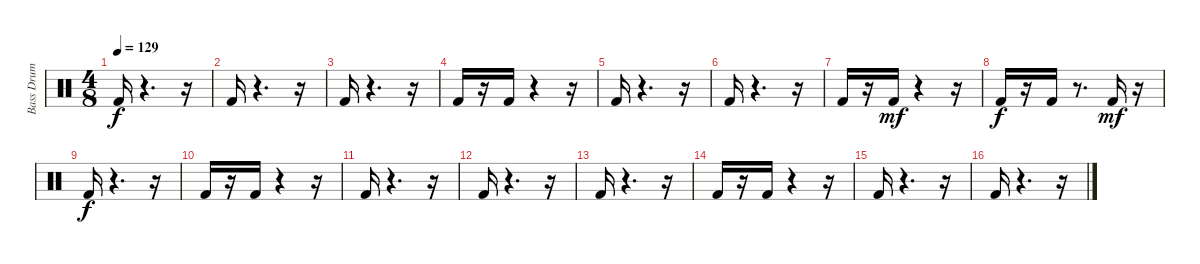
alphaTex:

\track ("Bass Drum" "Bass Drum") {instrument percussion}
\staff {score}
\articulation defaults
\ts (4 8)
\tempo 129
\clef neutral
\ks c "Kick (hit) 2".16{dy f}
r.4{d} r.16 |
"Kick (hit) 2".16 r.4{d} r.16 |
"Kick (hit) 2".16 r.4{d} r.16 |
"Kick (hit) 2".16 r.16 "Kick (hit) 2".16 r.4 r.16 |
"Kick (hit) 2".16 r.4{d} r.16 |
"Kick (hit) 2".16 r.4{d} r.16 |
"Kick (hit) 2".16 r.16 "Kick (hit) 2".16{dy mf} r.4 r.16 |
"Kick (hit) 2".16{dy f} r.16 "Kick (hit) 2".16 r.8{d} "Kick (hit) 2".16{dy mf} r.16 |
"Kick (hit) 2".16{dy f} r.4{d} r.16 |
"Kick (hit) 2".16 r.16 "Kick (hit) 2".16 r.4 r.16 |
"Kick (hit) 2".16 r.4{d} r.16 |
"Kick (hit) 2".16 r.4{d} r.16 |
"Kick (hit) 2".16 r.4{d} r.16 |
"Kick (hit) 2".16 r.16 "Kick (hit) 2".16 r.4 r.16 |
"Kick (hit) 2".16 r.4{d} r.16 |
"Kick (hit) 2".16 r.4{d} r.16
